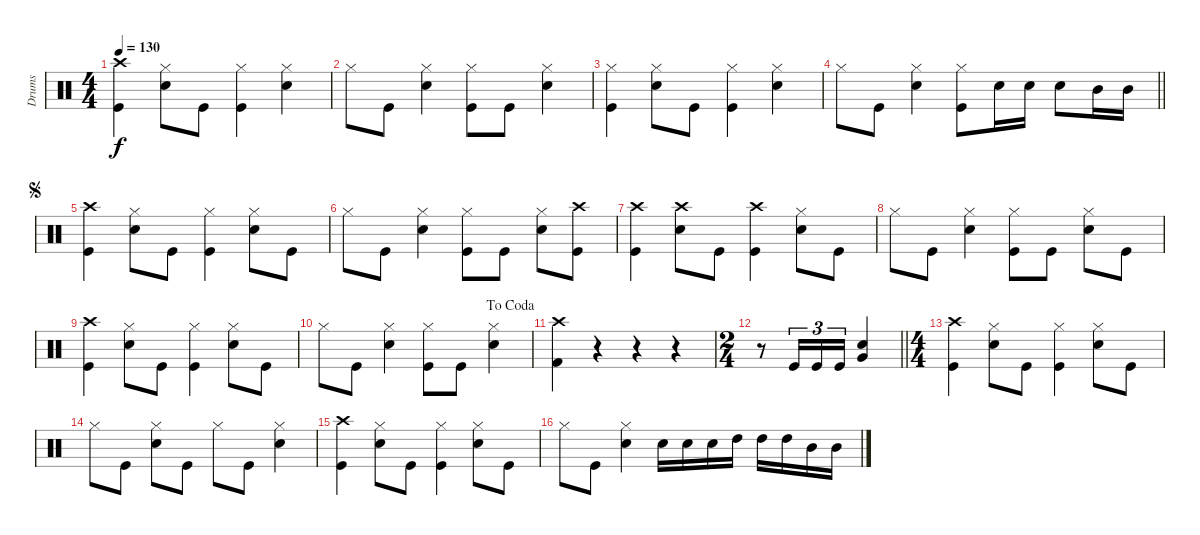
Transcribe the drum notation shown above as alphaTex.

\track ("Drums" "Drums") {instrument percussion}
\staff {score}
\articulation defaults
\ts (4 4)
\tempo 130
\clef neutral
\ks c
("Crash high (hit)" "Kick (hit)").4{dy f} ("Hi-Hat (closed)" "Snare (hit) 2").8 "Kick (hit)".8 ("Hi-Hat (closed)" "Kick (hit)").4 ("Hi-Hat (closed)" "Snare (hit) 2").4 |
"Hi-Hat (closed)".8 "Kick (hit)".8 ("Hi-Hat (closed)" "Snare (hit) 2").4 ("Hi-Hat (closed)" "Kick (hit)").8 "Kick (hit)".8 ("Hi-Hat (closed)" "Snare (hit) 2").4 |
("Hi-Hat (closed)" "Kick (hit)").4 ("Hi-Hat (closed)" "Snare (hit) 2").8 "Kick (hit)".8 ("Hi-Hat (closed)" "Kick (hit)").4 ("Hi-Hat (closed)" "Snare (hit) 2").4 |
\barLineRight lightlight "Hi-Hat (closed)".8 "Kick (hit)".8
("Hi-Hat (closed)" "Snare (hit) 2").4 ("Hi-Hat (closed)" "Kick (hit)").8 "Snare (hit) 2".16 "Snare (hit) 2".16 "Snare (hit) 2".8 "Mid Tom (hit)".16 "Mid Tom (hit)".16 |
\jump segno
("Crash high (hit)" "Kick (hit)").4 ("Hi-Hat (closed)" "Snare (hit) 2").8 "Kick (hit)".8 ("Hi-Hat (closed)" "Kick (hit)").4 ("Hi-Hat (closed)" "Snare (hit) 2").8 "Kick (hit)".8 |
"Hi-Hat (closed)".8 "Kick (hit)".8 ("Hi-Hat (closed)" "Snare (hit) 2").4 ("Hi-Hat (closed)" "Kick (hit)").8 "Kick (hit)".8 ("Hi-Hat (closed)" "Snare (hit) 2").8 ("Crash high (hit)" "Kick (hit)").8 |
("Crash high (hit)" "Kick (hit)").4 ("Crash high (hit)" "Snare (hit) 2").8 "Kick (hit)".8 ("Crash high (hit)" "Kick (hit)").4 ("Hi-Hat (closed)" "Snare (hit) 2").8 "Kick (hit)".8 |
"Hi-Hat (closed)".8 "Kick (hit)".8 ("Hi-Hat (closed)" "Snare (hit) 2").4 ("Hi-Hat (closed)" "Kick (hit)").8 "Kick (hit)".8 ("Hi-Hat (closed)" "Snare (hit) 2").8 "Kick (hit)".8 |
("Crash high (hit)" "Kick (hit)").4 ("Hi-Hat (closed)" "Snare (hit) 2").8 "Kick (hit)".8 ("Hi-Hat (closed)" "Kick (hit)").4 ("Hi-Hat (closed)" "Snare (hit) 2").8 "Kick (hit)".8 |
\jump dacoda "Hi-Hat (closed)".8 "Kick (hit)".8
("Hi-Hat (closed)" "Snare (hit) 2").4 ("Hi-Hat (closed)" "Kick (hit)").8 "Kick (hit)".8 ("Hi-Hat (closed)" "Snare (hit) 2").4 |
("Crash high (hit)" "Kick (hit) 2").4 r.4 r.4 r.4 |
\ts (2 4)
\barLineRight lightlight
r.8 "Kick (hit)".16{tu (3 2)} "Kick (hit)".16{tu (3 2)} "Kick (hit)".16{tu (3 2)} ("Snare (hit) 2" "Very Low Tom (hit)").4 |
\ts (4 4)
("Crash high (hit)" "Kick (hit)").4 ("Hi-Hat (closed)" "Snare (hit) 2").8 "Kick (hit)".8 ("Hi-Hat (closed)" "Kick (hit)").4 ("Hi-Hat (closed)" "Snare (hit) 2").8 "Kick (hit)".8 |
"Hi-Hat (closed)".8 "Kick (hit)".8 ("Hi-Hat (closed)" "Snare (hit) 2").8 "Kick (hit)".8 "Hi-Hat (closed)".8 "Kick (hit)".8 ("Hi-Hat (closed)" "Snare (hit) 2").4 |
("Crash high (hit)" "Kick (hit)").4 ("Hi-Hat (closed)" "Snare (hit) 2").8 "Kick (hit)".8 ("Hi-Hat (closed)" "Kick (hit)").4 ("Hi-Hat (closed)" "Snare (hit) 2").8 "Kick (hit)".8 |
"Hi-Hat (closed)".8 "Kick (hit)".8 ("Hi-Hat (closed)" "Snare (hit) 2").4 "Snare (hit) 2".16 "Snare (hit) 2".16 "Snare (hit) 2".16 "High Tom (hit)".16 "High Tom (hit)".16 "High Tom (hit)".16 "Mid Tom (hit)".16 "Mid Tom (hit)".16
